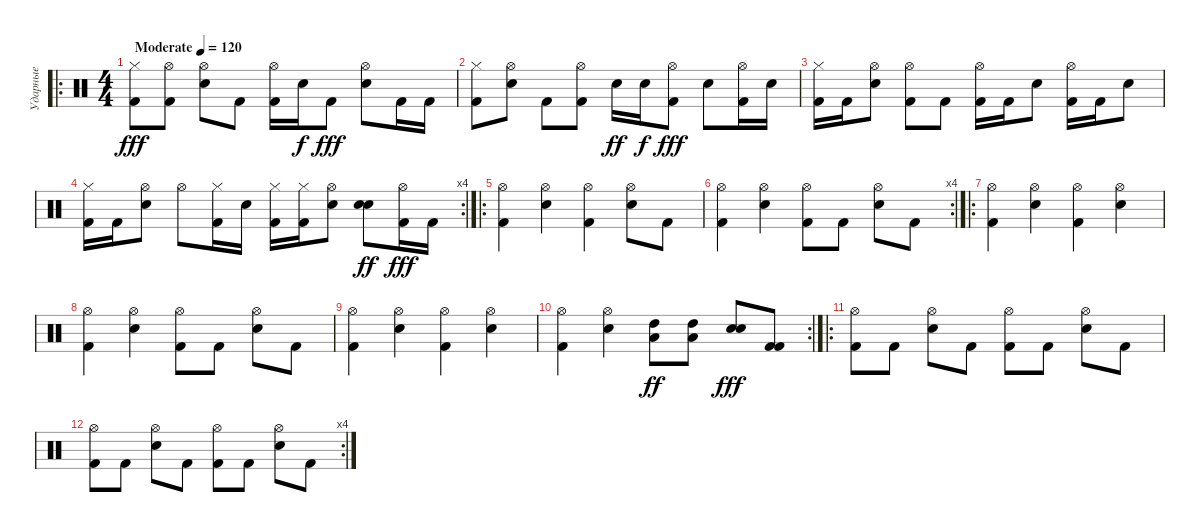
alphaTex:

\track ("Ударные" "Ударные") {instrument percussion}
\staff {score}
\articulation defaults
\ro
\ts (4 4)
\tempo (120 "Moderate")
\clef neutral
\ks c
("Hi-Hat (closed)" "Kick (hit) 2").8{dy fff} ("Hi-Hat (open)" "Kick (hit) 2").8 ("Hi-Hat (open)" "Electric Snare (hit)").8 "Kick (hit) 2".8 ("Hi-Hat (open)" "Kick (hit) 2").16 "Electric Snare (hit)".16{dy f} "Kick (hit) 2".8{dy fff} ("Hi-Hat (open)" "Electric Snare (hit)").8 "Kick (hit) 2".16 "Kick (hit) 2".16 |
("Hi-Hat (closed)" "Kick (hit) 2").8 ("Hi-Hat (open)" "Electric Snare (hit)").8 "Kick (hit) 2".8 ("Hi-Hat (open)" "Kick (hit) 2").8 "Electric Snare (hit)".16{dy ff} "Electric Snare (hit)".16{dy f} ("Hi-Hat (open)" "Kick (hit) 2").8{dy fff} "Electric Snare (hit)".8 ("Hi-Hat (open)" "Kick (hit) 2").16 "Electric Snare (hit)".16 |
("Hi-Hat (closed)" "Kick (hit) 2").16 "Kick (hit) 2".16 ("Hi-Hat (open)" "Electric Snare (hit)").8 ("Hi-Hat (open)" "Kick (hit) 2").8 "Kick (hit) 2".8 ("Hi-Hat (open)" "Kick (hit) 2").16 "Kick (hit) 2".16 "Electric Snare (hit)".8 ("Hi-Hat (open)" "Kick (hit) 2").16 "Kick (hit) 2".16 "Electric Snare (hit)".8 |
\rc 4
("Hi-Hat (closed)" "Kick (hit) 2").16 "Kick (hit) 2".16 ("Hi-Hat (open)" "Electric Snare (hit)").8 "Hi-Hat (open)".8 ("Hi-Hat (closed)" "Kick (hit) 2").16 "Electric Snare (hit)".16 ("Hi-Hat (closed)" "Kick (hit) 2").16 ("Hi-Hat (closed)" "Kick (hit) 2").16 ("Hi-Hat (open)" "Electric Snare (hit)").8 ("Electric Snare (hit)" "Electric Snare (hit)").8{bd 60 dy ff} ("Hi-Hat (open)" "Kick (hit) 2").16{dy fff} "Kick (hit) 2".16 |
\ro
("Hi-Hat (open)" "Kick (hit) 2").4 ("Hi-Hat (open)" "Electric Snare (hit)").4 ("Hi-Hat (open)" "Kick (hit) 2").4 ("Hi-Hat (open)" "Electric Snare (hit)").8 "Kick (hit) 2".8 |
\rc 4
("Hi-Hat (open)" "Kick (hit) 2").4 ("Hi-Hat (open)" "Electric Snare (hit)").4 ("Hi-Hat (open)" "Kick (hit) 2").8 "Kick (hit) 2".8 ("Hi-Hat (open)" "Electric Snare (hit)").8 "Kick (hit) 2".8 |
\ro
("Hi-Hat (open)" "Kick (hit) 2").4 ("Hi-Hat (open)" "Electric Snare (hit)").4 ("Hi-Hat (open)" "Kick (hit) 2").4 ("Hi-Hat (open)" "Electric Snare (hit)").4 |
("Hi-Hat (open)" "Kick (hit) 2").4 ("Hi-Hat (open)" "Electric Snare (hit)").4 ("Hi-Hat (open)" "Kick (hit) 2").8 "Kick (hit) 2".8 ("Hi-Hat (open)" "Electric Snare (hit)").8 "Kick (hit) 2".8 |
("Hi-Hat (open)" "Kick (hit) 2").4 ("Hi-Hat (open)" "Electric Snare (hit)").4 ("Hi-Hat (open)" "Kick (hit) 2").4 ("Hi-Hat (open)" "Electric Snare (hit)").4 |
\rc 2
("Hi-Hat (open)" "Kick (hit) 2").4 ("Hi-Hat (open)" "Electric Snare (hit)").4 ("Low Tom (hit)" "High Tom (hit)").8{bd 60 dy ff} ("Low Tom (hit)" "High Tom (hit)").8{bd 60} ("Electric Snare (hit)" "Electric Snare (hit)").8{bd 60 dy fff} ("Kick (hit) 2" "Kick (hit) 2").8{bd 60} |
\ro
("Hi-Hat (open)" "Kick (hit) 2").8 "Kick (hit) 2".8 ("Hi-Hat (open)" "Electric Snare (hit)").8 "Kick (hit) 2".8 ("Hi-Hat (open)" "Kick (hit) 2").8 "Kick (hit) 2".8 ("Hi-Hat (open)" "Electric Snare (hit)").8 "Kick (hit) 2".8 |
\rc 4
("Hi-Hat (open)" "Kick (hit) 2").8 "Kick (hit) 2".8 ("Hi-Hat (open)" "Electric Snare (hit)").8 "Kick (hit) 2".8 ("Hi-Hat (open)" "Kick (hit) 2").8 "Kick (hit) 2".8 ("Hi-Hat (open)" "Electric Snare (hit)").8 "Kick (hit) 2".8
